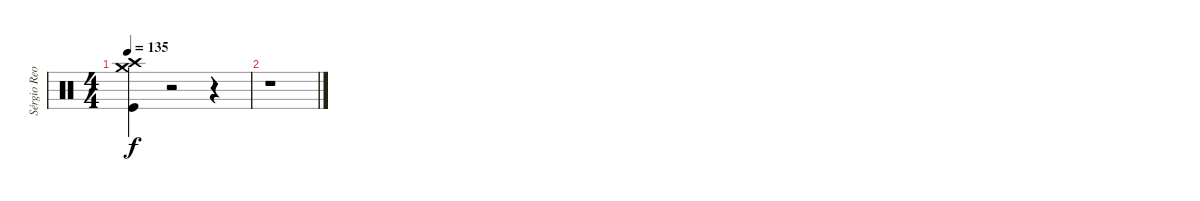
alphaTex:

\track ("Sérgio Reoli" "Sérgio Reo") {instrument percussion}
\staff {score}
\articulation defaults
\ts (4 4)
\tempo 135
\clef neutral
\ks c
("Crash high (hit)" "Crash medium (hit)" "Kick (hit)").4{dy f} r.2 r.4 |
r.1
